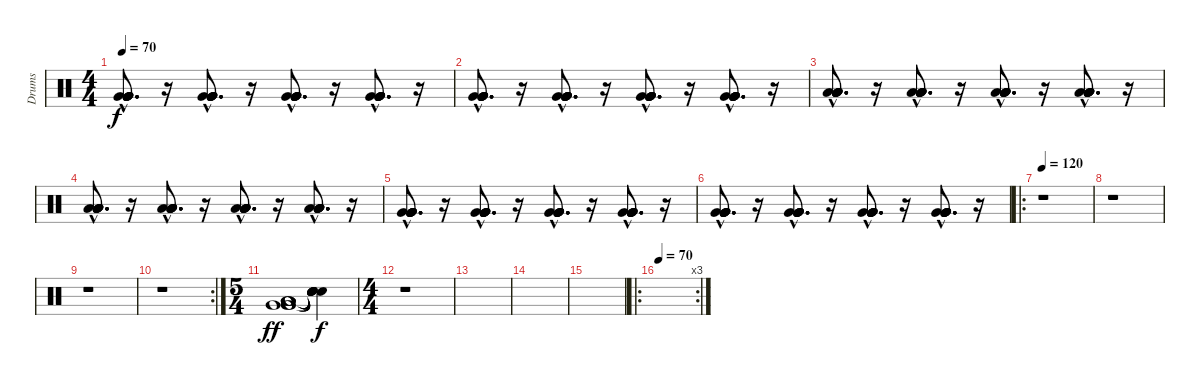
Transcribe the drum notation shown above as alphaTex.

\track ("Drums" "Drums") {instrument percussion}
\staff {score}
\articulation defaults
\ts (4 4)
\tempo 70
\clef neutral
\ks c
("Very Low Tom (hit)"{hac} "Very Low Tom (hit)"{hac} "Very Low Tom (hit)"{hac} "Very Low Tom (hit)"{hac} "Very Low Tom (hit)"{hac} "Very Low Tom (hit)"{hac}).8{d dy f} r.16 ("Very Low Tom (hit)"{hac} "Very Low Tom (hit)"{hac} "Very Low Tom (hit)"{hac} "Very Low Tom (hit)"{hac} "Very Low Tom (hit)"{hac} "Very Low Tom (hit)"{hac}).8{d} r.16 ("Very Low Tom (hit)"{hac} "Very Low Tom (hit)"{hac} "Very Low Tom (hit)"{hac} "Very Low Tom (hit)"{hac} "Very Low Tom (hit)"{hac} "Very Low Tom (hit)"{hac}).8{d} r.16 ("Very Low Tom (hit)"{hac} "Very Low Tom (hit)"{hac} "Very Low Tom (hit)"{hac} "Very Low Tom (hit)"{hac} "Very Low Tom (hit)"{hac} "Very Low Tom (hit)"{hac}).8{d} r.16 |
("Very Low Tom (hit)"{hac} "Very Low Tom (hit)"{hac} "Very Low Tom (hit)"{hac} "Very Low Tom (hit)"{hac} "Very Low Tom (hit)"{hac} "Very Low Tom (hit)"{hac}).8{d} r.16 ("Very Low Tom (hit)"{hac} "Very Low Tom (hit)"{hac} "Very Low Tom (hit)"{hac} "Very Low Tom (hit)"{hac} "Very Low Tom (hit)"{hac} "Very Low Tom (hit)"{hac}).8{d} r.16 ("Very Low Tom (hit)"{hac} "Very Low Tom (hit)"{hac} "Very Low Tom (hit)"{hac} "Very Low Tom (hit)"{hac} "Very Low Tom (hit)"{hac} "Very Low Tom (hit)"{hac}).8{d} r.16 ("Very Low Tom (hit)"{hac} "Very Low Tom (hit)"{hac} "Very Low Tom (hit)"{hac} "Very Low Tom (hit)"{hac} "Very Low Tom (hit)"{hac} "Very Low Tom (hit)"{hac}).8{d} r.16 |
("Low Floor Tom (hit)"{hac} "Low Floor Tom (hit)"{hac} "Low Floor Tom (hit)"{hac} "Low Floor Tom (hit)"{hac} "Low Floor Tom (hit)"{hac} "Low Floor Tom (hit)"{hac}).8{d} r.16 ("Low Floor Tom (hit)"{hac} "Low Floor Tom (hit)"{hac} "Low Floor Tom (hit)"{hac} "Low Floor Tom (hit)"{hac} "Low Floor Tom (hit)"{hac} "Low Floor Tom (hit)"{hac}).8{d} r.16 ("Low Floor Tom (hit)"{hac} "Low Floor Tom (hit)"{hac} "Low Floor Tom (hit)"{hac} "Low Floor Tom (hit)"{hac} "Low Floor Tom (hit)"{hac} "Low Floor Tom (hit)"{hac}).8{d} r.16 ("Low Floor Tom (hit)"{hac} "Low Floor Tom (hit)"{hac} "Low Floor Tom (hit)"{hac} "Low Floor Tom (hit)"{hac} "Low Floor Tom (hit)"{hac} "Low Floor Tom (hit)"{hac}).8{d} r.16 |
("Low Floor Tom (hit)"{hac} "Low Floor Tom (hit)"{hac} "Low Floor Tom (hit)"{hac} "Low Floor Tom (hit)"{hac} "Low Floor Tom (hit)"{hac} "Low Floor Tom (hit)"{hac}).8{d} r.16 ("Low Floor Tom (hit)"{hac} "Low Floor Tom (hit)"{hac} "Low Floor Tom (hit)"{hac} "Low Floor Tom (hit)"{hac} "Low Floor Tom (hit)"{hac} "Low Floor Tom (hit)"{hac}).8{d} r.16 ("Low Floor Tom (hit)"{hac} "Low Floor Tom (hit)"{hac} "Low Floor Tom (hit)"{hac} "Low Floor Tom (hit)"{hac} "Low Floor Tom (hit)"{hac} "Low Floor Tom (hit)"{hac}).8{d} r.16 ("Low Floor Tom (hit)"{hac} "Low Floor Tom (hit)"{hac} "Low Floor Tom (hit)"{hac} "Low Floor Tom (hit)"{hac} "Low Floor Tom (hit)"{hac} "Low Floor Tom (hit)"{hac}).8{d} r.16 |
("Very Low Tom (hit)"{hac} "Very Low Tom (hit)"{hac} "Very Low Tom (hit)"{hac} "Very Low Tom (hit)"{hac} "Very Low Tom (hit)"{hac} "Very Low Tom (hit)"{hac}).8{d} r.16 ("Very Low Tom (hit)"{hac} "Very Low Tom (hit)"{hac} "Very Low Tom (hit)"{hac} "Very Low Tom (hit)"{hac} "Very Low Tom (hit)"{hac} "Very Low Tom (hit)"{hac}).8{d} r.16 ("Very Low Tom (hit)"{hac} "Very Low Tom (hit)"{hac} "Very Low Tom (hit)"{hac} "Very Low Tom (hit)"{hac} "Very Low Tom (hit)"{hac} "Very Low Tom (hit)"{hac}).8{d} r.16 ("Very Low Tom (hit)"{hac} "Very Low Tom (hit)"{hac} "Very Low Tom (hit)"{hac} "Very Low Tom (hit)"{hac} "Very Low Tom (hit)"{hac} "Very Low Tom (hit)"{hac}).8{d} r.16 |
("Very Low Tom (hit)"{hac} "Very Low Tom (hit)"{hac} "Very Low Tom (hit)"{hac} "Very Low Tom (hit)"{hac} "Very Low Tom (hit)"{hac} "Very Low Tom (hit)"{hac}).8{d} r.16 ("Very Low Tom (hit)"{hac} "Very Low Tom (hit)"{hac} "Very Low Tom (hit)"{hac} "Very Low Tom (hit)"{hac} "Very Low Tom (hit)"{hac} "Very Low Tom (hit)"{hac}).8{d} r.16 ("Very Low Tom (hit)"{hac} "Very Low Tom (hit)"{hac} "Very Low Tom (hit)"{hac} "Very Low Tom (hit)"{hac} "Very Low Tom (hit)"{hac} "Very Low Tom (hit)"{hac}).8{d} r.16 ("Very Low Tom (hit)"{hac} "Very Low Tom (hit)"{hac} "Very Low Tom (hit)"{hac} "Very Low Tom (hit)"{hac} "Very Low Tom (hit)"{hac} "Very Low Tom (hit)"{hac}).8{d} r.16 |
\ro
\tempo 120
r.1 |
r.1 |
r.1 |
\rc 2
r.1 |
\ts (5 4)
("Very Low Tom (hit)" "Very Low Tom (hit)" "Very Low Tom (hit)" "Low Floor Tom (hit)" "Low Floor Tom (hit)" "Low Floor Tom (hit)").1{dy ff} ("Snare (hit)"{t} "Snare (hit)"{t} "Snare (hit)"{t} "Snare (hit)"{t} "Snare (hit)"{t} "Snare (hit)"{t}).4{dy f} |
\ts (4 4)
r.1 |
|
|
|
\ro
\rc 3
\tempo 70
